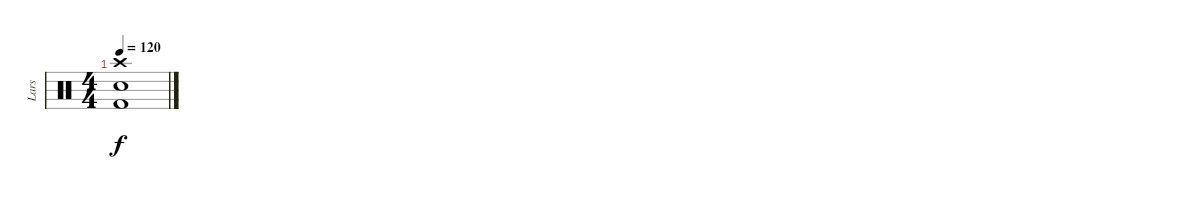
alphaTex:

\track ("Lars" "Lars") {instrument percussion}
\staff {score}
\articulation defaults
\ts (4 4)
\tempo 120
\clef neutral
\ks c
("Kick (hit) 2" "Snare (hit) 2" "Crash high (hit)").1{dy f}
